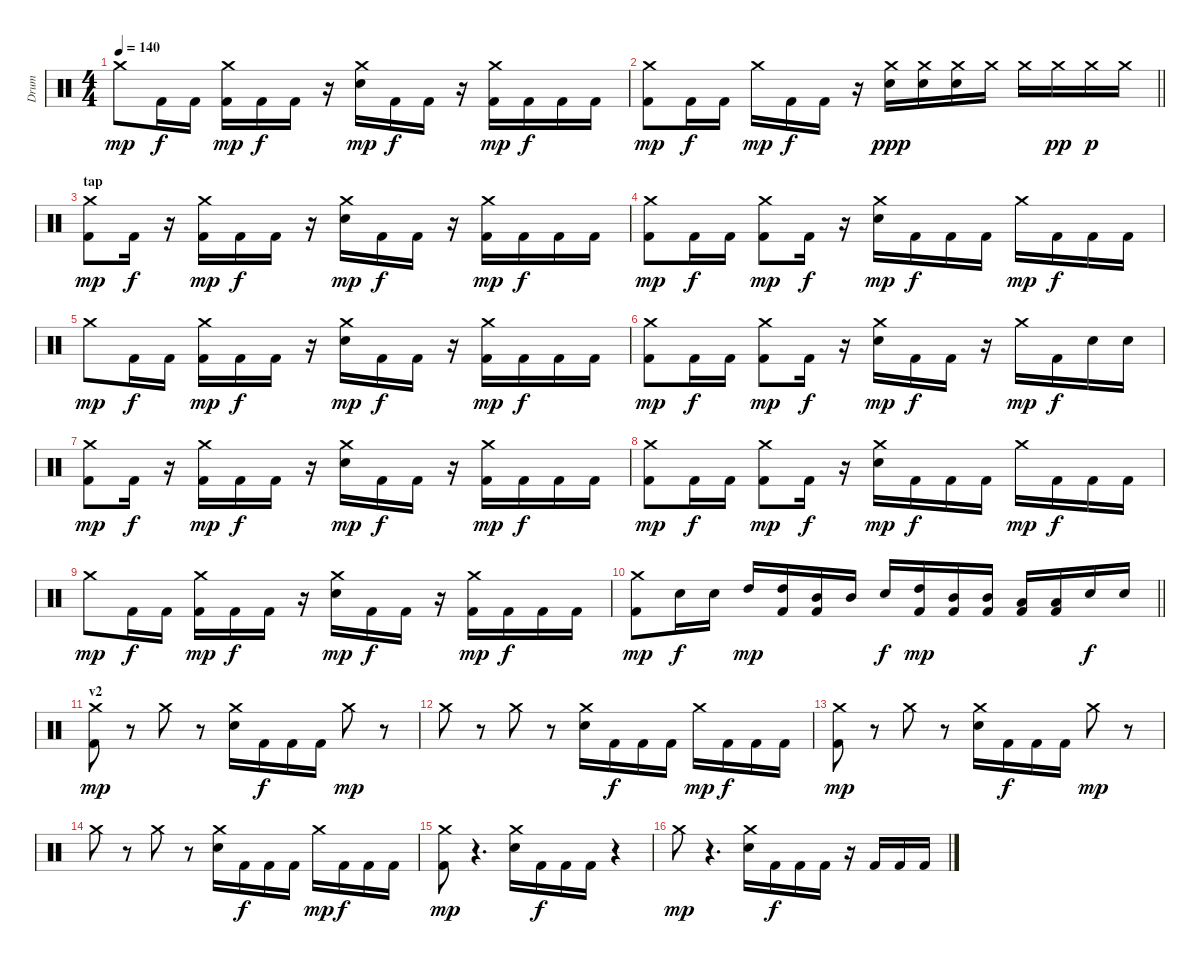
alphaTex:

\track ("Drum" "Drum") {instrument percussion}
\staff {score}
\articulation defaults
\ts (4 4)
\tempo 140
\clef neutral
\ks c "Crash medium (hit)".8{dy mp} "Kick (hit) 2".16{dy f} "Kick (hit) 2".16
("Kick (hit) 2" "Crash medium (hit)").16{dy mp} "Kick (hit) 2".16{dy f} "Kick (hit) 2".16 r.16 ("Electric Snare (hit)" "Crash medium (hit)").16{dy mp} "Kick (hit) 2".16{dy f} "Kick (hit) 2".16 r.16 ("Crash medium (hit)" "Kick (hit) 2").16{dy mp} "Kick (hit) 2".16{dy f} "Kick (hit) 2".16 "Kick (hit) 2".16 |
\barLineRight lightlight
("Crash medium (hit)" "Kick (hit) 2").8{dy mp} "Kick (hit) 2".16{dy f} "Kick (hit) 2".16 "Crash medium (hit)".16{dy mp} "Kick (hit) 2".16{dy f} "Kick (hit) 2".16 r.16 ("Electric Snare (hit)" "Crash medium (hit)").16{dy ppp} ("Crash medium (hit)" "Electric Snare (hit)").16 ("Crash medium (hit)" "Electric Snare (hit)").16 "Crash medium (hit)".16 "Crash medium (hit)".16 "Crash medium (hit)".16{dy pp} "Crash medium (hit)".16{dy p} "Crash medium (hit)".16 |
\section ("" "tap")
("Kick (hit) 2" "Crash medium (hit)").8{dy mp} "Kick (hit) 2".16{dy f} r.16 ("Crash medium (hit)" "Kick (hit) 2").16{dy mp} "Kick (hit) 2".16{dy f} "Kick (hit) 2".16 r.16 ("Electric Snare (hit)" "Crash medium (hit)").16{dy mp} "Kick (hit) 2".16{dy f} "Kick (hit) 2".16 r.16 ("Crash medium (hit)" "Kick (hit) 2").16{dy mp} "Kick (hit) 2".16{dy f} "Kick (hit) 2".16 "Kick (hit) 2".16 |
("Kick (hit) 2" "Crash medium (hit)").8{dy mp} "Kick (hit) 2".16{dy f} "Kick (hit) 2".16 ("Crash medium (hit)" "Kick (hit) 2").8{dy mp} "Kick (hit) 2".16{dy f} r.16 ("Electric Snare (hit)" "Crash medium (hit)").16{dy mp} "Kick (hit) 2".16{dy f} "Kick (hit) 2".16 "Kick (hit) 2".16 "Crash medium (hit)".16{dy mp} "Kick (hit) 2".16{dy f} "Kick (hit) 2".16 "Kick (hit) 2".16 |
"Crash medium (hit)".8{dy mp} "Kick (hit) 2".16{dy f} "Kick (hit) 2".16 ("Kick (hit) 2" "Crash medium (hit)").16{dy mp} "Kick (hit) 2".16{dy f} "Kick (hit) 2".16 r.16 ("Crash medium (hit)" "Electric Snare (hit)").16{dy mp} "Kick (hit) 2".16{dy f} "Kick (hit) 2".16 r.16 ("Crash medium (hit)" "Kick (hit) 2").16{dy mp} "Kick (hit) 2".16{dy f} "Kick (hit) 2".16 "Kick (hit) 2".16 |
("Crash medium (hit)" "Kick (hit) 2").8{dy mp} "Kick (hit) 2".16{dy f} "Kick (hit) 2".16 ("Crash medium (hit)" "Kick (hit) 2").8{dy mp} "Kick (hit) 2".16{dy f} r.16 ("Crash medium (hit)" "Electric Snare (hit)").16{dy mp} "Kick (hit) 2".16{dy f} "Kick (hit) 2".16 r.16 "Crash medium (hit)".16{dy mp} "Kick (hit) 2".16{dy f} "Snare (hit) 2".16 "Snare (hit) 2".16 |
("Crash medium (hit)" "Kick (hit) 2").8{dy mp} "Kick (hit) 2".16{dy f} r.16 ("Kick (hit) 2" "Crash medium (hit)").16{dy mp} "Kick (hit) 2".16{dy f} "Kick (hit) 2".16 r.16 ("Crash medium (hit)" "Electric Snare (hit)").16{dy mp} "Kick (hit) 2".16{dy f} "Kick (hit) 2".16 r.16 ("Kick (hit) 2" "Crash medium (hit)").16{dy mp} "Kick (hit) 2".16{dy f} "Kick (hit) 2".16 "Kick (hit) 2".16 |
("Crash medium (hit)" "Kick (hit) 2").8{dy mp} "Kick (hit) 2".16{dy f} "Kick (hit) 2".16 ("Kick (hit) 2" "Crash medium (hit)").8{dy mp} "Kick (hit) 2".16{dy f} r.16 ("Crash medium (hit)" "Electric Snare (hit)").16{dy mp} "Kick (hit) 2".16{dy f} "Kick (hit) 2".16 "Kick (hit) 2".16 "Crash medium (hit)".16{dy mp} "Kick (hit) 2".16{dy f} "Kick (hit) 2".16 "Kick (hit) 2".16 |
"Crash medium (hit)".8{dy mp} "Kick (hit) 2".16{dy f} "Kick (hit) 2".16 ("Kick (hit) 2" "Crash medium (hit)").16{dy mp} "Kick (hit) 2".16{dy f} "Kick (hit) 2".16 r.16 ("Electric Snare (hit)" "Crash medium (hit)").16{dy mp} "Kick (hit) 2".16{dy f} "Kick (hit) 2".16 r.16 ("Kick (hit) 2" "Crash medium (hit)").16{dy mp} "Kick (hit) 2".16{dy f} "Kick (hit) 2".16 "Kick (hit) 2".16 |
\barLineRight lightlight
("Kick (hit) 2" "Crash medium (hit)").8{dy mp} "Electric Snare (hit)".16{dy f} "Electric Snare (hit)".16 "High Tom (hit)".16{dy mp} ("Kick (hit) 2" "High Tom (hit)").16 ("Kick (hit) 2" "Mid Tom (hit)").16 "Mid Tom (hit)".16 "Electric Snare (hit)".16{dy f} ("Kick (hit) 2" "High Tom (hit)").16{dy mp} ("Kick (hit) 2" "Mid Tom (hit)").16 ("Kick (hit) 2" "Mid Tom (hit)").16 ("Kick (hit) 2" "Low Tom (hit)").16 ("Kick (hit) 2" "Low Tom (hit)").16 "Electric Snare (hit)".16{dy f} "Electric Snare (hit)".16 |
\section ("" "v2")
("Crash medium (hit)" "Kick (hit) 2").8{dy mp} r.8 "Crash medium (hit)".8 r.8 ("Electric Snare (hit)" "Crash medium (hit)").16 "Kick (hit) 2".16{dy f} "Kick (hit) 2".16 "Kick (hit) 2".16 "Crash medium (hit)".8{dy mp} r.8 |
"Crash medium (hit)".8 r.8 "Crash medium (hit)".8 r.8 ("Crash medium (hit)" "Electric Snare (hit)").16 "Kick (hit) 2".16{dy f} "Kick (hit) 2".16 "Kick (hit) 2".16 "Crash medium (hit)".16{dy mp} "Kick (hit) 2".16{dy f} "Kick (hit) 2".16 "Kick (hit) 2".16 |
("Kick (hit) 2" "Crash medium (hit)").8{dy mp} r.8 "Crash medium (hit)".8 r.8 ("Electric Snare (hit)" "Crash medium (hit)").16 "Kick (hit) 2".16{dy f} "Kick (hit) 2".16 "Kick (hit) 2".16 "Crash medium (hit)".8{dy mp} r.8 |
"Crash medium (hit)".8 r.8 "Crash medium (hit)".8 r.8 ("Crash medium (hit)" "Electric Snare (hit)").16 "Kick (hit) 2".16{dy f} "Kick (hit) 2".16 "Kick (hit) 2".16 "Crash medium (hit)".16{dy mp} "Kick (hit) 2".16{dy f} "Kick (hit) 2".16 "Kick (hit) 2".16 |
("Kick (hit) 2" "Crash medium (hit)").8{dy mp} r.4{d} ("Crash medium (hit)" "Electric Snare (hit)").16 "Kick (hit) 2".16{dy f} "Kick (hit) 2".16 "Kick (hit) 2".16 r.4 |
"Crash medium (hit)".8{dy mp} r.4{d} ("Electric Snare (hit)" "Crash medium (hit)").16 "Kick (hit) 2".16{dy f} "Kick (hit) 2".16 "Kick (hit) 2".16 r.16 "Kick (hit) 2".16 "Kick (hit) 2".16 "Kick (hit) 2".16
